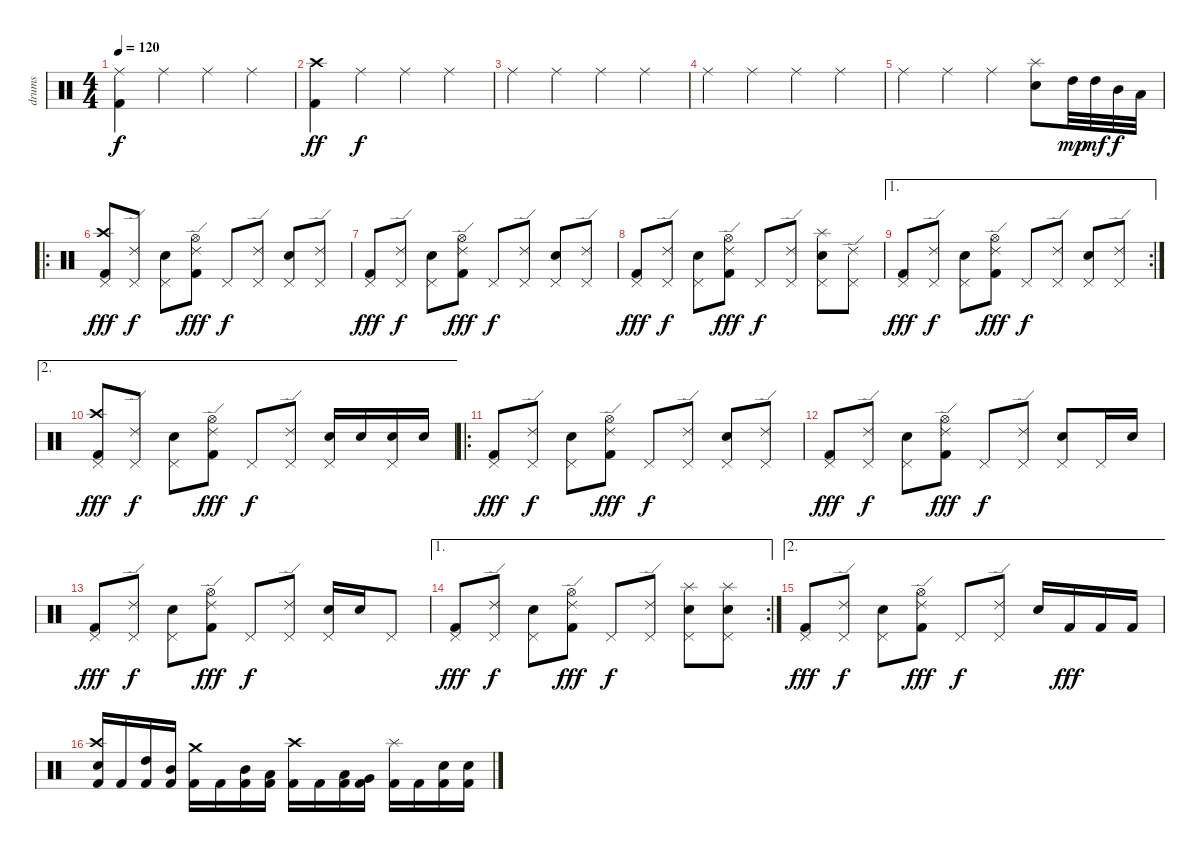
\track ("drums" "drums") {instrument percussion}
\staff {score}
\articulation defaults
\ts (4 4)
\tempo 120
\clef neutral
\ks c
("Ride (middle)" "Kick (hit) 2").4{dy f} "Ride (middle)".4 "Ride (middle)".4 "Ride (middle)".4 |
("Crash high (hit)" "Kick (hit) 2").4{dy ff} "Ride (middle)".4{dy f} "Ride (middle)".4 "Ride (middle)".4 |
"Ride (middle)".4 "Ride (middle)".4 "Ride (middle)".4 "Ride (middle)".4 |
"Ride (middle)".4 "Ride (middle)".4 "Ride (middle)".4 "Ride (middle)".4 |
"Ride (middle)".4 "Ride (middle)".4 "Ride (middle)".4 ("Splash (hit)" "Electric Snare (hit)").8 "High Tom (hit)".32{dy mp} "High Tom (hit)".32{dy mf} "Mid Tom (hit)".32{dy f} "Low Tom (hit)".32 |
\ro
("Crash high (hit)" "Pedal Hi-Hat (hit)" "Kick (hit) 2").8{dy fff} ("Ride (edge) 2" "Pedal Hi-Hat (hit)").8{dy f} ("Pedal Hi-Hat (hit)" "Electric Snare (hit)").8 ("Ride (edge) 2" "Hi-Hat (open)" "Kick (hit) 2").8{dy fff} "Pedal Hi-Hat (hit)".8{dy f} ("Ride (edge) 2" "Pedal Hi-Hat (hit)").8 ("Pedal Hi-Hat (hit)" "Electric Snare (hit)").8 ("Ride (edge) 2" "Pedal Hi-Hat (hit)").8 |
("Pedal Hi-Hat (hit)" "Kick (hit) 2").8{dy fff} ("Ride (edge) 2" "Pedal Hi-Hat (hit)").8{dy f} ("Pedal Hi-Hat (hit)" "Electric Snare (hit)").8 ("Ride (edge) 2" "Hi-Hat (open)" "Kick (hit) 2").8{dy fff} "Pedal Hi-Hat (hit)".8{dy f} ("Ride (edge) 2" "Pedal Hi-Hat (hit)").8 ("Pedal Hi-Hat (hit)" "Electric Snare (hit)").8 ("Ride (edge) 2" "Pedal Hi-Hat (hit)").8 |
("Pedal Hi-Hat (hit)" "Kick (hit) 2").8{dy fff} ("Ride (edge) 2" "Pedal Hi-Hat (hit)").8{dy f} ("Pedal Hi-Hat (hit)" "Electric Snare (hit)").8 ("Ride (edge) 2" "Hi-Hat (open)" "Kick (hit) 2").8{dy fff} "Pedal Hi-Hat (hit)".8{dy f} ("Ride (edge) 2" "Pedal Hi-Hat (hit)").8 ("Splash (hit)" "Pedal Hi-Hat (hit)" "Electric Snare (hit)").8 ("Ride (edge) 2" "Pedal Hi-Hat (hit)").8 |
\ae 1
\rc 2
("Pedal Hi-Hat (hit)" "Kick (hit) 2").8{dy fff} ("Ride (edge) 2" "Pedal Hi-Hat (hit)").8{dy f} ("Pedal Hi-Hat (hit)" "Electric Snare (hit)").8 ("Ride (edge) 2" "Hi-Hat (open)" "Kick (hit) 2").8{dy fff} "Pedal Hi-Hat (hit)".8{dy f} ("Ride (edge) 2" "Pedal Hi-Hat (hit)").8 ("Pedal Hi-Hat (hit)" "Electric Snare (hit)").8 ("Ride (edge) 2" "Pedal Hi-Hat (hit)").8 |
\ae 2
("Crash high (hit)" "Pedal Hi-Hat (hit)" "Kick (hit) 2").8{dy fff} ("Ride (edge) 2" "Pedal Hi-Hat (hit)").8{dy f} ("Pedal Hi-Hat (hit)" "Electric Snare (hit)").8 ("Ride (edge) 2" "Hi-Hat (open)" "Kick (hit) 2").8{dy fff} "Pedal Hi-Hat (hit)".8{dy f} ("Ride (edge) 2" "Pedal Hi-Hat (hit)").8 ("Pedal Hi-Hat (hit)" "Electric Snare (hit)").16 "Electric Snare (hit)".16 ("Pedal Hi-Hat (hit)" "Electric Snare (hit)").16 "Electric Snare (hit)".16 |
\ro
\section ("" "")
("Pedal Hi-Hat (hit)" "Kick (hit) 2").8{dy fff} ("Ride (edge) 2" "Pedal Hi-Hat (hit)").8{dy f} ("Pedal Hi-Hat (hit)" "Electric Snare (hit)").8 ("Ride (edge) 2" "Hi-Hat (open)" "Kick (hit) 2").8{dy fff} "Pedal Hi-Hat (hit)".8{dy f} ("Ride (edge) 2" "Pedal Hi-Hat (hit)").8 ("Pedal Hi-Hat (hit)" "Electric Snare (hit)").8 ("Ride (edge) 2" "Pedal Hi-Hat (hit)").8 |
("Pedal Hi-Hat (hit)" "Kick (hit) 2").8{dy fff} ("Ride (edge) 2" "Pedal Hi-Hat (hit)").8{dy f} ("Pedal Hi-Hat (hit)" "Electric Snare (hit)").8 ("Ride (edge) 2" "Hi-Hat (open)" "Kick (hit) 2").8{dy fff} "Pedal Hi-Hat (hit)".8{dy f} ("Ride (edge) 2" "Pedal Hi-Hat (hit)").8 ("Pedal Hi-Hat (hit)" "Electric Snare (hit)").8 "Pedal Hi-Hat (hit)".16 "Electric Snare (hit)".16 |
("Pedal Hi-Hat (hit)" "Kick (hit) 2").8{dy fff} ("Ride (edge) 2" "Pedal Hi-Hat (hit)").8{dy f} ("Pedal Hi-Hat (hit)" "Electric Snare (hit)").8 ("Ride (edge) 2" "Hi-Hat (open)" "Kick (hit) 2").8{dy fff} "Pedal Hi-Hat (hit)".8{dy f} ("Ride (edge) 2" "Pedal Hi-Hat (hit)").8 ("Pedal Hi-Hat (hit)" "Electric Snare (hit)").16 "Electric Snare (hit)".16 "Pedal Hi-Hat (hit)".8 |
\ae 1
\rc 2
("Pedal Hi-Hat (hit)" "Kick (hit) 2").8{dy fff} ("Ride (edge) 2" "Pedal Hi-Hat (hit)").8{dy f} ("Pedal Hi-Hat (hit)" "Electric Snare (hit)").8 ("Ride (edge) 2" "Hi-Hat (open)" "Kick (hit) 2").8{dy fff} "Pedal Hi-Hat (hit)".8{dy f} ("Ride (edge) 2" "Pedal Hi-Hat (hit)").8 ("Splash (hit)" "Pedal Hi-Hat (hit)" "Electric Snare (hit)").8 ("Splash (hit)" "Pedal Hi-Hat (hit)" "Electric Snare (hit)").8 |
\ae 2
("Pedal Hi-Hat (hit)" "Kick (hit) 2").8{dy fff} ("Ride (edge) 2" "Pedal Hi-Hat (hit)").8{dy f} ("Pedal Hi-Hat (hit)" "Electric Snare (hit)").8 ("Ride (edge) 2" "Hi-Hat (open)" "Kick (hit) 2").8{dy fff} "Pedal Hi-Hat (hit)".8{dy f} ("Ride (edge) 2" "Pedal Hi-Hat (hit)").8 "Electric Snare (hit)".16 "Kick (hit) 2".16{dy fff} "Kick (hit) 2".16 "Kick (hit) 2".16 |
("Crash high (hit)" "Electric Snare (hit)" "Kick (hit) 2").16 "Kick (hit) 2".16 ("High Tom (hit)" "Kick (hit) 2").16 ("Mid Tom (hit)" "Kick (hit) 2").16 ("Crash medium (hit)" "Kick (hit) 2").16 "Kick (hit) 2".16 ("Mid Tom (hit)" "Kick (hit) 2").16 ("Low Tom (hit)" "Kick (hit) 2").16 ("Crash high (hit)" "Kick (hit) 2").16 "Kick (hit) 2".16 ("Low Tom (hit)" "Kick (hit) 2").16 ("Very Low Tom (hit)" "Kick (hit) 2").16 ("Splash (hit)" "Kick (hit) 2").16 "Kick (hit) 2".16 ("Electric Snare (hit)" "Kick (hit) 2").16 ("Electric Snare (hit)" "Kick (hit) 2").16
